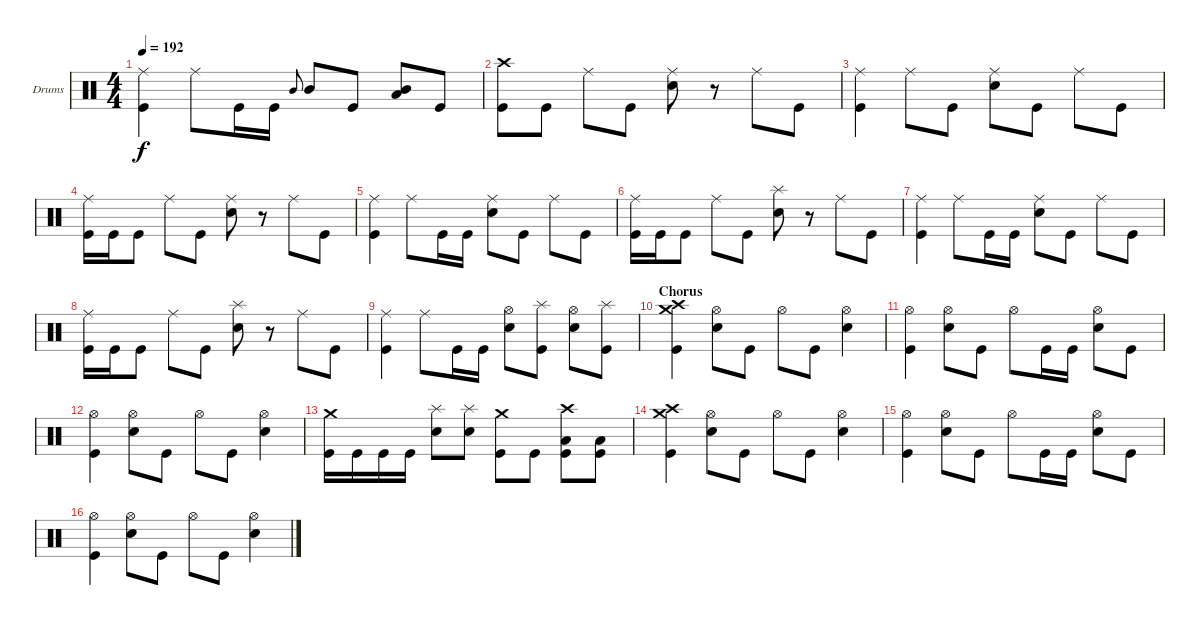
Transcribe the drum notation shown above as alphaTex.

\bracketExtendMode groupsimilarinstruments
\firstSystemTrackNameOrientation horizontal
\otherSystemsTrackNameOrientation horizontal
\track ("Corey Friedlander" "Drums") {instrument percussion}
\staff {score}
\articulation defaults
\ts (4 4)
\tempo 192
\clef neutral
\ks aminor
("Kick (hit)" "Ride (middle)").4{dy f} "Ride (middle)".8 "Kick (hit)".16 "Kick (hit)".16 "Mid Tom (hit)".8{gr onbeat} "Mid Tom (hit)".8 "Kick (hit)".8 ("Mid Tom (hit)" "Low Tom (hit)").8 "Kick (hit)".8 |
("Kick (hit)" "Crash high (hit)").8 "Kick (hit)".8 "Ride (middle)".8 "Kick (hit)".8 ("Snare (hit) 2" "Ride (middle)").8 r.8 "Ride (middle)".8 "Kick (hit)".8 |
("Kick (hit)" "Ride (middle)").4 "Ride (middle)".8 "Kick (hit)".8 ("Snare (hit) 2" "Ride (middle)").8 "Kick (hit)".8 "Ride (middle)".8 "Kick (hit)".8 |
("Kick (hit)" "Ride (middle)").16 "Kick (hit)".16 "Kick (hit)".8 "Ride (middle)".8 "Kick (hit)".8 ("Snare (hit) 2" "Ride (middle)").8 r.8 "Ride (middle)".8 "Kick (hit)".8 |
("Kick (hit)" "Ride (middle)").4 "Ride (middle)".8 "Kick (hit)".16 "Kick (hit)".16 ("Snare (hit) 2" "Ride (middle)").8 "Kick (hit)".8 "Ride (middle)".8 "Kick (hit)".8 |
("Kick (hit)" "Ride (middle)").16 "Kick (hit)".16 "Kick (hit)".8 "Ride (middle)".8 "Kick (hit)".8 ("Snare (hit) 2" "Splash (hit)").8 r.8 "Ride (middle)".8 "Kick (hit)".8 |
("Kick (hit)" "Ride (middle)").4 "Ride (middle)".8 "Kick (hit)".16 "Kick (hit)".16 ("Snare (hit) 2" "Ride (middle)").8 "Kick (hit)".8 "Ride (middle)".8 "Kick (hit)".8 |
("Kick (hit)" "Ride (middle)").16 "Kick (hit)".16 "Kick (hit)".8 "Ride (middle)".8 "Kick (hit)".8 ("Snare (hit) 2" "Splash (hit)").8 r.8 "Ride (middle)".8 "Kick (hit)".8 |
("Kick (hit)" "Ride (middle)").4 "Ride (middle)".8 "Kick (hit)".16 "Kick (hit)".16 ("Snare (hit) 2" "Hi-Hat (open)").8 ("Kick (hit)" "Splash (hit)").8 ("Snare (hit) 2" "Hi-Hat (open)").8 ("Kick (hit)" "Splash (hit)").8 |
\section ("" "Chorus")
("Kick (hit)" "Crash medium (hit)" "Crash high (hit)").4 ("Snare (hit) 2" "Hi-Hat (open)").8 "Kick (hit)".8 "Hi-Hat (open)".8 "Kick (hit)".8 ("Snare (hit) 2" "Hi-Hat (open)").4 |
("Kick (hit)" "Hi-Hat (open)").4 ("Snare (hit) 2" "Hi-Hat (open)").8 "Kick (hit)".8 "Hi-Hat (open)".8 "Kick (hit)".16 "Kick (hit)".16 ("Snare (hit) 2" "Hi-Hat (open)").8 "Kick (hit)".8 |
("Kick (hit)" "Hi-Hat (open)").4 ("Snare (hit) 2" "Hi-Hat (open)").8 "Kick (hit)".8 "Hi-Hat (open)".8 "Kick (hit)".8 ("Snare (hit) 2" "Hi-Hat (open)").4 |
("Kick (hit)" "Crash medium (hit)").16 "Kick (hit)".16 "Kick (hit)".16 "Kick (hit)".16 ("Snare (hit) 2" "Splash (hit)").8 ("Snare (hit) 2" "Splash (hit)").8 ("Kick (hit)" "Crash medium (hit)").8 "Kick (hit)".8 ("Kick (hit)" "Low Tom (hit)" "Crash high (hit)").8 ("Low Tom (hit)" "Kick (hit)").8 |
("Kick (hit)" "Crash medium (hit)" "Crash high (hit)").4 ("Snare (hit) 2" "Hi-Hat (open)").8 "Kick (hit)".8 "Hi-Hat (open)".8 "Kick (hit)".8 ("Snare (hit) 2" "Hi-Hat (open)").4 |
("Kick (hit)" "Hi-Hat (open)").4 ("Snare (hit) 2" "Hi-Hat (open)").8 "Kick (hit)".8 "Hi-Hat (open)".8 "Kick (hit)".16 "Kick (hit)".16 ("Snare (hit) 2" "Hi-Hat (open)").8 "Kick (hit)".8 |
("Kick (hit)" "Hi-Hat (open)").4 ("Snare (hit) 2" "Hi-Hat (open)").8 "Kick (hit)".8 "Hi-Hat (open)".8 "Kick (hit)".8 ("Snare (hit) 2" "Hi-Hat (open)").4
